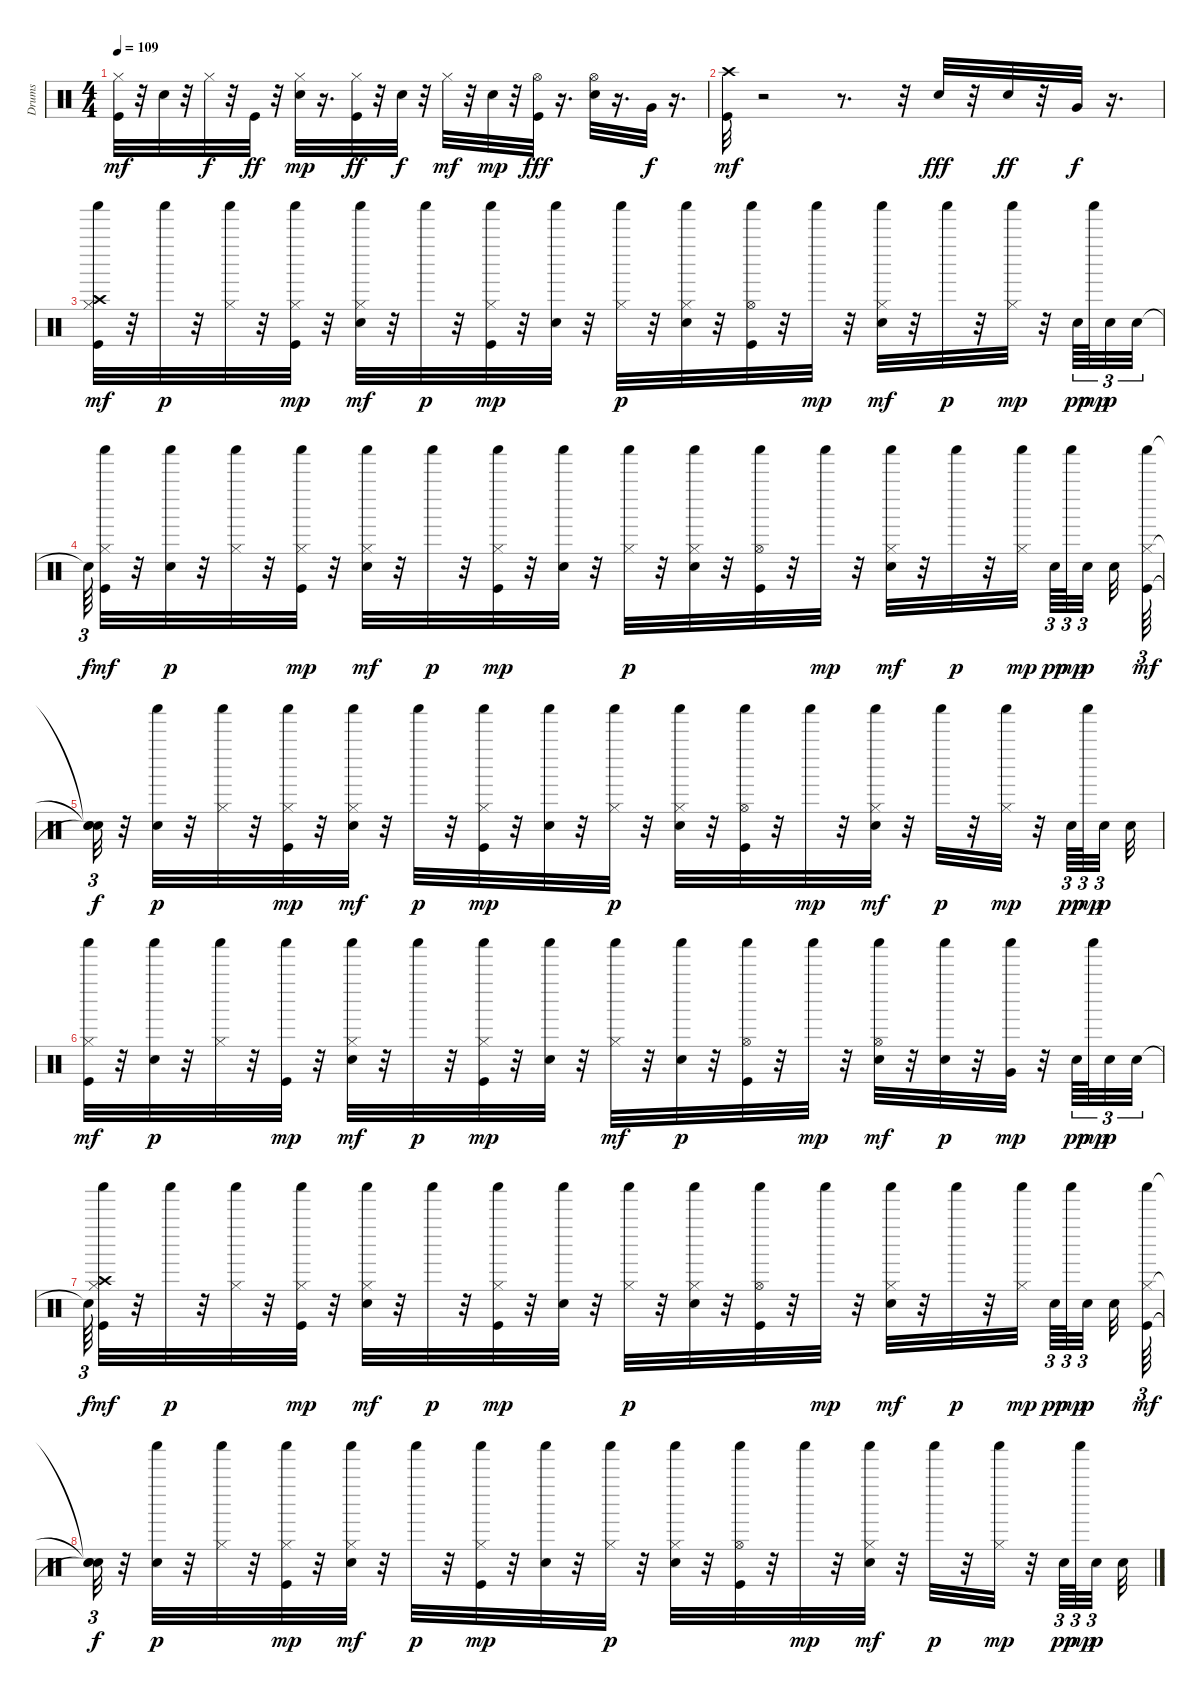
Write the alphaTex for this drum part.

\track ("Drums" "Drums") {instrument percussion}
\staff {score}
\articulation defaults
\ts (4 4)
\tempo 109
\clef neutral
\ks c
("Kick (hit)" "Hi-Hat (closed)").32{dy mf} r.32 "Snare (hit) 2".32 r.32 "Hi-Hat (closed)".32{dy f} r.32 "Kick (hit)".32{dy ff} r.32 ("Snare (hit) 2" "Hi-Hat (closed)").32{dy mp} r.16{d} ("Kick (hit)" "Hi-Hat (closed)").32{dy ff} r.32 "Snare (hit) 2".32{dy f} r.32 "Hi-Hat (closed)".32{dy mf} r.32 "Snare (hit) 2".32{dy mp} r.32 ("Kick (hit)" "Hi-Hat (open)").32{dy fff} r.16{d} ("Snare (hit) 2" "Hi-Hat (open)").32 r.16{d} "Very Low Tom (hit)".32{dy f} r.16{d} |
("Kick (hit)" "Crash high (hit)").32{dy mf} r.2 r.8{d} r.32 "Snare (hit) 2".32{dy fff} r.32 "Snare (hit) 2".32{dy ff} r.32 "Very Low Tom (hit)".32{dy f} r.16{d} |
("Kick (hit)" "Crash high (hit)" "Hi-Hat (closed)" "Shaker (hit)").32{dy mf} r.32 "Shaker (hit)".32{dy p} r.32 ("Hi-Hat (closed)" "Shaker (hit)").32 r.32 ("Kick (hit)" "Hi-Hat (closed)" "Shaker (hit)").32{dy mp} r.32 ("Snare (hit) 2" "Hi-Hat (closed)" "Shaker (hit)").32{dy mf} r.32 "Shaker (hit)".32{dy p} r.32 ("Kick (hit)" "Hi-Hat (closed)" "Shaker (hit)").32{dy mp} r.32 ("Snare (hit) 2" "Shaker (hit)").32 r.32 ("Hi-Hat (closed)" "Shaker (hit)").32{dy p} r.32 ("Snare (hit) 2" "Hi-Hat (closed)" "Shaker (hit)").32 r.32 ("Kick (hit)" "Hi-Hat (open)" "Shaker (hit)").32 r.32 "Shaker (hit)".32{dy mp} r.32 ("Snare (hit) 2" "Hi-Hat (closed)" "Shaker (hit)").32{dy mf} r.32 "Shaker (hit)".32{dy p} r.32 ("Hi-Hat (closed)" "Shaker (hit)").32{dy mp} r.32 "Snare (hit) 2".64{tu (3 2) dy pp} "Shaker (hit)".64{tu (3 2) dy mp} "Snare (hit) 2".32{tu (3 2) dy p} "Snare (hit) 2".32{tu (3 2)} |
"Snare (hit)"{t}.64{tu (3 2) dy f} ("Kick (hit)" "Hi-Hat (closed)" "Shaker (hit)").32{dy mf} r.32 ("Snare (hit) 2" "Shaker (hit)").32{dy p} r.32 ("Hi-Hat (closed)" "Shaker (hit)").32 r.32 ("Kick (hit)" "Hi-Hat (closed)" "Shaker (hit)").32{dy mp} r.32 ("Snare (hit) 2" "Hi-Hat (closed)" "Shaker (hit)").32{dy mf} r.32 "Shaker (hit)".32{dy p} r.32 ("Kick (hit)" "Hi-Hat (closed)" "Shaker (hit)").32{dy mp} r.32 ("Snare (hit) 2" "Shaker (hit)").32 r.32 ("Hi-Hat (closed)" "Shaker (hit)").32{dy p} r.32 ("Snare (hit) 2" "Hi-Hat (closed)" "Shaker (hit)").32 r.32 ("Kick (hit)" "Hi-Hat (open)" "Shaker (hit)").32 r.32 "Shaker (hit)".32{dy mp} r.32 ("Snare (hit) 2" "Hi-Hat (closed)" "Shaker (hit)").32{dy mf} r.32 "Shaker (hit)".32{dy p} r.32 ("Hi-Hat (closed)" "Shaker (hit)").32{dy mp beam splitsecondary} "Snare (hit) 2".64{tu (3 2) dy pp} "Shaker (hit)".64{tu (3 2) dy mp} "Snare (hit) 2".32{tu (3 2) dy p beam splitsecondary} "Snare (hit) 2".32 ("Kick (hit)" "Hi-Hat (closed)" "Shaker (hit)").64{tu (3 2) dy mf} |
("Snare (hit)"{t} "Snare (hit)"{t} "Snare (hit)"{t}).32{tu (3 2) dy f} r.32 ("Snare (hit) 2" "Shaker (hit)").32{dy p} r.32 ("Hi-Hat (closed)" "Shaker (hit)").32 r.32 ("Kick (hit)" "Hi-Hat (closed)" "Shaker (hit)").32{dy mp} r.32 ("Snare (hit) 2" "Hi-Hat (closed)" "Shaker (hit)").32{dy mf} r.32 "Shaker (hit)".32{dy p} r.32 ("Kick (hit)" "Hi-Hat (closed)" "Shaker (hit)").32{dy mp} r.32 ("Snare (hit) 2" "Shaker (hit)").32 r.32 ("Hi-Hat (closed)" "Shaker (hit)").32{dy p} r.32 ("Snare (hit) 2" "Hi-Hat (closed)" "Shaker (hit)").32 r.32 ("Kick (hit)" "Hi-Hat (open)" "Shaker (hit)").32 r.32 "Shaker (hit)".32{dy mp} r.32 ("Snare (hit) 2" "Hi-Hat (closed)" "Shaker (hit)").32{dy mf} r.32 "Shaker (hit)".32{dy p} r.32 ("Hi-Hat (closed)" "Shaker (hit)").32{dy mp} r.32 "Snare (hit) 2".64{tu (3 2) dy pp} "Shaker (hit)".64{tu (3 2) dy mp} "Snare (hit) 2".32{tu (3 2) dy p beam splitsecondary} "Snare (hit) 2".32 |
("Kick (hit)" "Hi-Hat (closed)" "Shaker (hit)").32{dy mf} r.32 ("Snare (hit) 2" "Shaker (hit)").32{dy p} r.32 ("Hi-Hat (closed)" "Shaker (hit)").32 r.32 ("Kick (hit)" "Shaker (hit)").32{dy mp} r.32 ("Snare (hit) 2" "Hi-Hat (closed)" "Shaker (hit)").32{dy mf} r.32 "Shaker (hit)".32{dy p} r.32 ("Kick (hit)" "Hi-Hat (closed)" "Shaker (hit)").32{dy mp} r.32 ("Snare (hit) 2" "Shaker (hit)").32 r.32 ("Hi-Hat (closed)" "Shaker (hit)").32{dy mf} r.32 ("Snare (hit) 2" "Shaker (hit)").32{dy p} r.32 ("Kick (hit)" "Hi-Hat (open)" "Shaker (hit)").32 r.32 "Shaker (hit)".32{dy mp} r.32 ("Snare (hit) 2" "Hi-Hat (open)" "Shaker (hit)").32{dy mf} r.32 ("Snare (hit) 2" "Shaker (hit)").32{dy p} r.32 ("Very Low Tom (hit)" "Shaker (hit)").32{dy mp} r.32 "Snare (hit) 2".64{tu (3 2) dy pp} "Shaker (hit)".64{tu (3 2) dy mp} "Snare (hit) 2".32{tu (3 2) dy p} "Snare (hit) 2".32{tu (3 2)} |
"Snare (hit)"{t}.64{tu (3 2) dy f} ("Kick (hit)" "Crash high (hit)" "Hi-Hat (closed)" "Shaker (hit)").32{dy mf} r.32 "Shaker (hit)".32{dy p} r.32 ("Hi-Hat (closed)" "Shaker (hit)").32 r.32 ("Kick (hit)" "Hi-Hat (closed)" "Shaker (hit)").32{dy mp} r.32 ("Snare (hit) 2" "Hi-Hat (closed)" "Shaker (hit)").32{dy mf} r.32 "Shaker (hit)".32{dy p} r.32 ("Kick (hit)" "Hi-Hat (closed)" "Shaker (hit)").32{dy mp} r.32 ("Snare (hit) 2" "Shaker (hit)").32 r.32 ("Hi-Hat (closed)" "Shaker (hit)").32{dy p} r.32 ("Snare (hit) 2" "Hi-Hat (closed)" "Shaker (hit)").32 r.32 ("Kick (hit)" "Hi-Hat (open)" "Shaker (hit)").32 r.32 "Shaker (hit)".32{dy mp} r.32 ("Snare (hit) 2" "Hi-Hat (closed)" "Shaker (hit)").32{dy mf} r.32 "Shaker (hit)".32{dy p} r.32 ("Hi-Hat (closed)" "Shaker (hit)").32{dy mp beam splitsecondary} "Snare (hit) 2".64{tu (3 2) dy pp} "Shaker (hit)".64{tu (3 2) dy mp} "Snare (hit) 2".32{tu (3 2) dy p beam splitsecondary} "Snare (hit) 2".32 ("Kick (hit)" "Hi-Hat (closed)" "Shaker (hit)").64{tu (3 2) dy mf} |
("Snare (hit)"{t} "Snare (hit)"{t} "Snare (hit)"{t}).32{tu (3 2) dy f} r.32 ("Snare (hit) 2" "Shaker (hit)").32{dy p} r.32 ("Hi-Hat (closed)" "Shaker (hit)").32 r.32 ("Kick (hit)" "Hi-Hat (closed)" "Shaker (hit)").32{dy mp} r.32 ("Snare (hit) 2" "Hi-Hat (closed)" "Shaker (hit)").32{dy mf} r.32 "Shaker (hit)".32{dy p} r.32 ("Kick (hit)" "Hi-Hat (closed)" "Shaker (hit)").32{dy mp} r.32 ("Snare (hit) 2" "Shaker (hit)").32 r.32 ("Hi-Hat (closed)" "Shaker (hit)").32{dy p} r.32 ("Snare (hit) 2" "Hi-Hat (closed)" "Shaker (hit)").32 r.32 ("Kick (hit)" "Hi-Hat (open)" "Shaker (hit)").32 r.32 "Shaker (hit)".32{dy mp} r.32 ("Snare (hit) 2" "Hi-Hat (closed)" "Shaker (hit)").32{dy mf} r.32 "Shaker (hit)".32{dy p} r.32 ("Hi-Hat (closed)" "Shaker (hit)").32{dy mp} r.32 "Snare (hit) 2".64{tu (3 2) dy pp} "Shaker (hit)".64{tu (3 2) dy mp} "Snare (hit) 2".32{tu (3 2) dy p beam splitsecondary} "Snare (hit) 2".32
